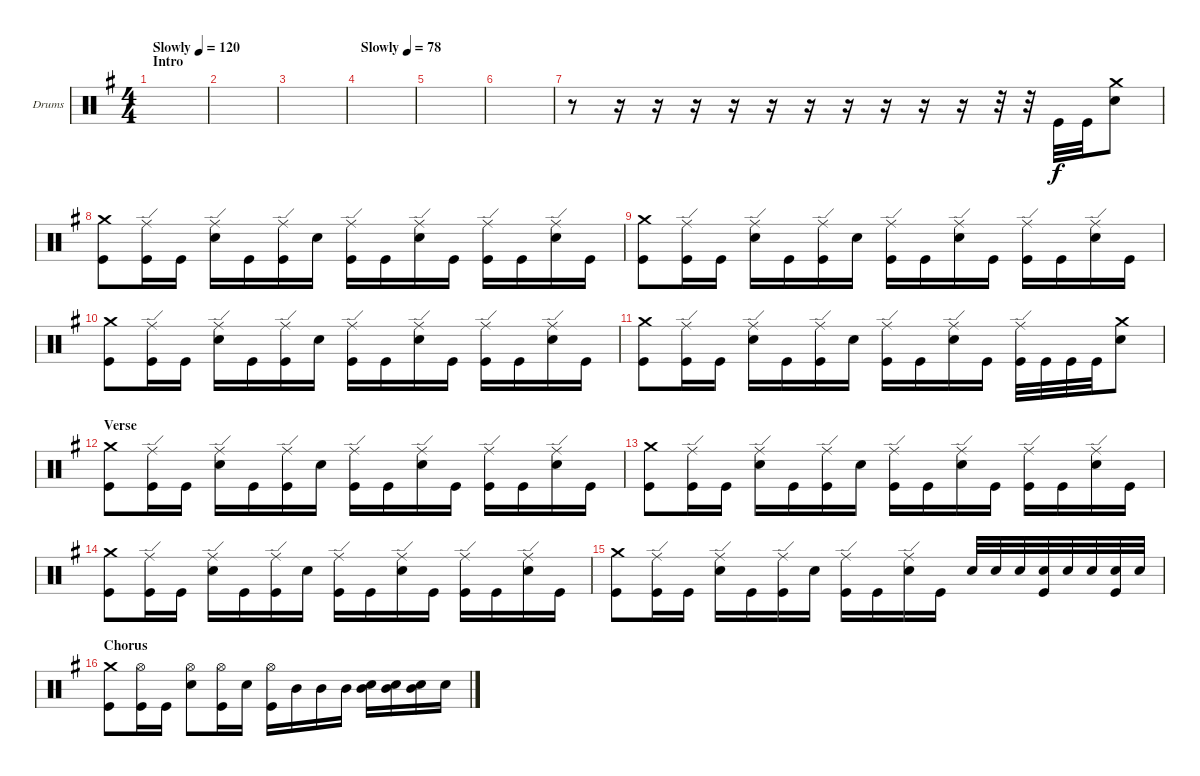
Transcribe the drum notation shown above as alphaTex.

\defaultSystemsLayout 4
\bracketExtendMode groupsimilarinstruments
\firstSystemTrackNameOrientation horizontal
\otherSystemsTrackNameOrientation horizontal
\track ("Drumkit" "Drums") {instrument percussion}
\staff {score}
\articulation defaults
\ts (4 4)
\section ("" "Intro")
\tempo (120 "Slowly")
\clef neutral
\ks g
|
|
|
\tempo (78 "Slowly")
|
|
|
r.8 r.16 r.16 r.16 r.16 r.16 r.16 r.16 r.16 r.16 r.16 r.32 r.32 "Kick (hit)".32 "Kick (hit)".32 ("Crash medium (hit)" "Snare (hit) 2").8 |
("Crash medium (hit)" "Kick (hit)").8 ("Ride (edge)" "Kick (hit)").16 "Kick (hit)".16 ("Ride (edge)" "Snare (hit) 2").16 "Kick (hit)".16 ("Ride (edge)" "Kick (hit)").16 "Snare (hit) 2".16 ("Ride (edge)" "Kick (hit)").16 "Kick (hit)".16 ("Ride (edge)" "Snare (hit) 2").16 "Kick (hit)".16 ("Ride (edge)" "Kick (hit)").16 "Kick (hit)".16 ("Ride (edge)" "Snare (hit) 2").16 "Kick (hit)".16 |
("Crash medium (hit)" "Kick (hit)").8 ("Ride (edge)" "Kick (hit)").16 "Kick (hit)".16 ("Ride (edge)" "Snare (hit) 2").16 "Kick (hit)".16 ("Ride (edge)" "Kick (hit)").16 "Snare (hit) 2".16 ("Ride (edge)" "Kick (hit)").16 "Kick (hit)".16 ("Ride (edge)" "Snare (hit) 2").16 "Kick (hit)".16 ("Ride (edge)" "Kick (hit)").16 "Kick (hit)".16 ("Ride (edge)" "Snare (hit) 2").16 "Kick (hit)".16 |
("Crash medium (hit)" "Kick (hit)").8 ("Ride (edge)" "Kick (hit)").16 "Kick (hit)".16 ("Ride (edge)" "Snare (hit) 2").16 "Kick (hit)".16 ("Ride (edge)" "Kick (hit)").16 "Snare (hit) 2".16 ("Ride (edge)" "Kick (hit)").16 "Kick (hit)".16 ("Ride (edge)" "Snare (hit) 2").16 "Kick (hit)".16 ("Ride (edge)" "Kick (hit)").16 "Kick (hit)".16 ("Ride (edge)" "Snare (hit) 2").16 "Kick (hit)".16 |
("Crash medium (hit)" "Kick (hit)").8 ("Ride (edge)" "Kick (hit)").16 "Kick (hit)".16 ("Ride (edge)" "Snare (hit) 2").16 "Kick (hit)".16 ("Ride (edge)" "Kick (hit)").16 "Snare (hit) 2".16 ("Ride (edge)" "Kick (hit)").16 "Kick (hit)".16 ("Ride (edge)" "Snare (hit) 2").16 "Kick (hit)".16 ("Ride (edge)" "Kick (hit)").32 "Kick (hit)".32 "Kick (hit)".32 "Kick (hit)".32 ("Crash medium (hit)" "Snare (hit) 2").8 |
\section ("" "Verse")
("Crash medium (hit)" "Kick (hit)").8 ("Ride (edge)" "Kick (hit)").16 "Kick (hit)".16 ("Ride (edge)" "Snare (hit) 2").16 "Kick (hit)".16 ("Ride (edge)" "Kick (hit)").16 "Snare (hit) 2".16 ("Ride (edge)" "Kick (hit)").16 "Kick (hit)".16 ("Ride (edge)" "Snare (hit) 2").16 "Kick (hit)".16 ("Ride (edge)" "Kick (hit)").16 "Kick (hit)".16 ("Ride (edge)" "Snare (hit) 2").16 "Kick (hit)".16 |
("Crash medium (hit)" "Kick (hit)").8 ("Ride (edge)" "Kick (hit)").16 "Kick (hit)".16 ("Ride (edge)" "Snare (hit) 2").16 "Kick (hit)".16 ("Ride (edge)" "Kick (hit)").16 "Snare (hit) 2".16 ("Ride (edge)" "Kick (hit)").16 "Kick (hit)".16 ("Ride (edge)" "Snare (hit) 2").16 "Kick (hit)".16 ("Ride (edge)" "Kick (hit)").16 "Kick (hit)".16 ("Ride (edge)" "Snare (hit) 2").16 "Kick (hit)".16 |
("Crash medium (hit)" "Kick (hit)").8 ("Ride (edge)" "Kick (hit)").16 "Kick (hit)".16 ("Ride (edge)" "Snare (hit) 2").16 "Kick (hit)".16 ("Ride (edge)" "Kick (hit)").16 "Snare (hit) 2".16 ("Ride (edge)" "Kick (hit)").16 "Kick (hit)".16 ("Ride (edge)" "Snare (hit) 2").16 "Kick (hit)".16 ("Ride (edge)" "Kick (hit)").16 "Kick (hit)".16 ("Ride (edge)" "Snare (hit) 2").16 "Kick (hit)".16 |
("Crash medium (hit)" "Kick (hit)").8 ("Ride (edge)" "Kick (hit)").16 "Kick (hit)".16 ("Ride (edge)" "Snare (hit) 2").16 "Kick (hit)".16 ("Ride (edge)" "Kick (hit)").16 "Snare (hit) 2".16 ("Ride (edge)" "Kick (hit)").16 "Kick (hit)".16 ("Ride (edge)" "Snare (hit) 2").16 "Kick (hit)".16 "Snare (hit) 2".32 "Snare (hit) 2".32 "Snare (hit) 2".32 ("Snare (hit) 2" "Kick (hit)").32 "Snare (hit) 2".32 "Snare (hit) 2".32 ("Snare (hit) 2" "Kick (hit)").32 "Snare (hit) 2".32 |
\section ("" "Chorus")
("Crash medium (hit)" "Kick (hit)").8 ("Hi-Hat (open)" "Kick (hit)").16 "Kick (hit)".16 ("Hi-Hat (open)" "Snare (hit) 2").8 ("Hi-Hat (open)" "Kick (hit)").16 "Snare (hit) 2".16 ("Hi-Hat (open)" "Kick (hit)").16 "Mid Tom (hit)".16 "Mid Tom (hit)".16 "Mid Tom (hit)".16 ("Snare (hit) 2" "Mid Tom (hit)").16 ("Snare (hit) 2" "Mid Tom (hit)").16 ("Snare (hit) 2" "Mid Tom (hit)").16 "Snare (hit) 2".16
